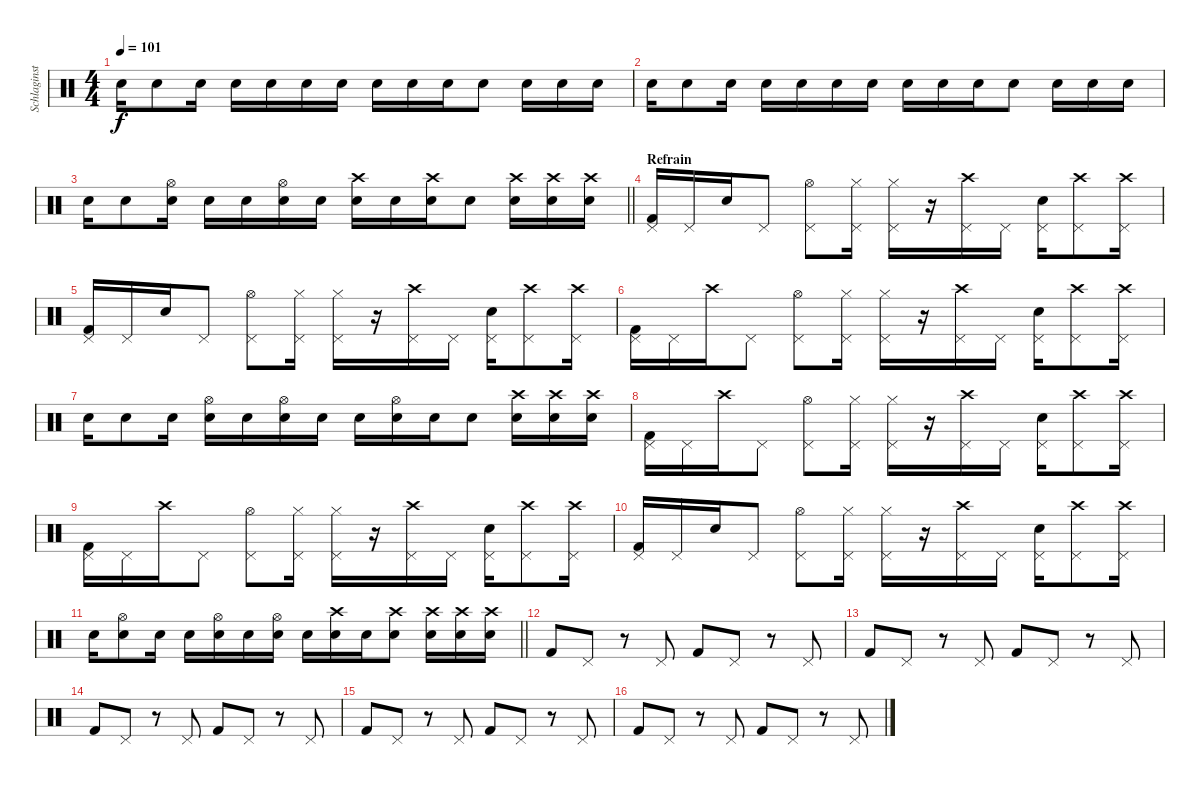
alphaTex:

\track ("Schlaginstrumente - Auswahl" "Schlaginst") {instrument percussion}
\staff {score}
\articulation defaults
\ts (4 4)
\tempo 101
\clef neutral
\ks c "Electric Snare (hit)".16{dy f} "Electric Snare (hit)".8 "Electric Snare (hit)".16 "Electric Snare (hit)".16 "Electric Snare (hit)".16 "Electric Snare (hit)".16 "Electric Snare (hit)".16 "Electric Snare (hit)".16 "Electric Snare (hit)".16 "Electric Snare (hit)".16 "Electric Snare (hit)".8 "Electric Snare (hit)".16 "Electric Snare (hit)".16 "Electric Snare (hit)".16
|
"Electric Snare (hit)".16 "Electric Snare (hit)".8 "Electric Snare (hit)".16 "Electric Snare (hit)".16 "Electric Snare (hit)".16 "Electric Snare (hit)".16 "Electric Snare (hit)".16 "Electric Snare (hit)".16 "Electric Snare (hit)".16 "Electric Snare (hit)".16 "Electric Snare (hit)".8 "Electric Snare (hit)".16 "Electric Snare (hit)".16 "Electric Snare (hit)".16 |
\barLineRight lightlight "Electric Snare (hit)".16 "Electric Snare (hit)".8
("Electric Snare (hit)" "Hi-Hat (open)").16 "Electric Snare (hit)".16 "Electric Snare (hit)".16 ("Electric Snare (hit)" "Hi-Hat (open)").16 "Electric Snare (hit)".16 ("Electric Snare (hit)" "Crash high (hit)").16 "Electric Snare (hit)".16 ("Electric Snare (hit)" "Crash high (hit)").16 "Electric Snare (hit)".8 ("Electric Snare (hit)" "Crash high (hit)").16 ("Electric Snare (hit)" "Crash high (hit)").16 ("Electric Snare (hit)" "Crash high (hit)").16 |
\section ("" "Refrain")
("Kick (hit) 2" "Pedal Hi-Hat (hit)").16 "Pedal Hi-Hat (hit)".16 "Electric Snare (hit)".16 "Pedal Hi-Hat (hit)".8 ("Hi-Hat (open)" "Pedal Hi-Hat (hit)").8 ("Hi-Hat (closed)" "Pedal Hi-Hat (hit)").16 ("Hi-Hat (closed)" "Pedal Hi-Hat (hit)").16 r.16 ("Crash high (hit)" "Pedal Hi-Hat (hit)").16 "Pedal Hi-Hat (hit)".16 ("Snare (hit) 2" "Pedal Hi-Hat (hit)").16 ("Crash high (hit)" "Pedal Hi-Hat (hit)").8 ("Crash high (hit)" "Pedal Hi-Hat (hit)").16 |
("Kick (hit) 2" "Pedal Hi-Hat (hit)").16 "Pedal Hi-Hat (hit)".16 "Electric Snare (hit)".16 "Pedal Hi-Hat (hit)".8 ("Hi-Hat (open)" "Pedal Hi-Hat (hit)").8 ("Hi-Hat (closed)" "Pedal Hi-Hat (hit)").16 ("Hi-Hat (closed)" "Pedal Hi-Hat (hit)").16 r.16 ("Crash high (hit)" "Pedal Hi-Hat (hit)").16 "Pedal Hi-Hat (hit)".16 ("Snare (hit) 2" "Pedal Hi-Hat (hit)").16 ("Crash high (hit)" "Pedal Hi-Hat (hit)").8 ("Crash high (hit)" "Pedal Hi-Hat (hit)").16 |
("Kick (hit) 2" "Pedal Hi-Hat (hit)").16 "Pedal Hi-Hat (hit)".16 "Crash high (hit)".16 "Pedal Hi-Hat (hit)".8 ("Hi-Hat (open)" "Pedal Hi-Hat (hit)").8 ("Hi-Hat (closed)" "Pedal Hi-Hat (hit)").16 ("Hi-Hat (closed)" "Pedal Hi-Hat (hit)").16 r.16 ("Crash high (hit)" "Pedal Hi-Hat (hit)").16 "Pedal Hi-Hat (hit)".16 ("Snare (hit) 2" "Pedal Hi-Hat (hit)").16 ("Crash high (hit)" "Pedal Hi-Hat (hit)").8 ("Crash high (hit)" "Pedal Hi-Hat (hit)").16 |
"Electric Snare (hit)".16 "Electric Snare (hit)".8 "Electric Snare (hit)".16 ("Electric Snare (hit)" "Hi-Hat (open)").16 "Electric Snare (hit)".16 ("Electric Snare (hit)" "Hi-Hat (open)").16 "Electric Snare (hit)".16 "Electric Snare (hit)".16 ("Electric Snare (hit)" "Hi-Hat (open)").16 "Electric Snare (hit)".16 "Electric Snare (hit)".8 ("Electric Snare (hit)" "Crash high (hit)").16 ("Electric Snare (hit)" "Crash high (hit)").16 ("Electric Snare (hit)" "Crash high (hit)").16 |
("Kick (hit) 2" "Pedal Hi-Hat (hit)").16 "Pedal Hi-Hat (hit)".16 "Crash high (hit)".16 "Pedal Hi-Hat (hit)".8 ("Hi-Hat (open)" "Pedal Hi-Hat (hit)").8 ("Hi-Hat (closed)" "Pedal Hi-Hat (hit)").16 ("Hi-Hat (closed)" "Pedal Hi-Hat (hit)").16 r.16 ("Crash high (hit)" "Pedal Hi-Hat (hit)").16 "Pedal Hi-Hat (hit)".16 ("Snare (hit) 2" "Pedal Hi-Hat (hit)").16 ("Crash high (hit)" "Pedal Hi-Hat (hit)").8 ("Crash high (hit)" "Pedal Hi-Hat (hit)").16 |
("Kick (hit) 2" "Pedal Hi-Hat (hit)").16 "Pedal Hi-Hat (hit)".16 "Crash high (hit)".16 "Pedal Hi-Hat (hit)".8 ("Hi-Hat (open)" "Pedal Hi-Hat (hit)").8 ("Hi-Hat (closed)" "Pedal Hi-Hat (hit)").16 ("Hi-Hat (closed)" "Pedal Hi-Hat (hit)").16 r.16 ("Crash high (hit)" "Pedal Hi-Hat (hit)").16 "Pedal Hi-Hat (hit)".16 ("Snare (hit) 2" "Pedal Hi-Hat (hit)").16 ("Crash high (hit)" "Pedal Hi-Hat (hit)").8 ("Crash high (hit)" "Pedal Hi-Hat (hit)").16 |
("Kick (hit) 2" "Pedal Hi-Hat (hit)").16 "Pedal Hi-Hat (hit)".16 "Electric Snare (hit)".16 "Pedal Hi-Hat (hit)".8 ("Hi-Hat (open)" "Pedal Hi-Hat (hit)").8 ("Hi-Hat (closed)" "Pedal Hi-Hat (hit)").16 ("Hi-Hat (closed)" "Pedal Hi-Hat (hit)").16 r.16 ("Crash high (hit)" "Pedal Hi-Hat (hit)").16 "Pedal Hi-Hat (hit)".16 ("Snare (hit) 2" "Pedal Hi-Hat (hit)").16 ("Crash high (hit)" "Pedal Hi-Hat (hit)").8 ("Crash high (hit)" "Pedal Hi-Hat (hit)").16 |
\barLineRight lightlight "Electric Snare (hit)".16
("Electric Snare (hit)" "Hi-Hat (open)").8 "Electric Snare (hit)".16 "Electric Snare (hit)".16 ("Electric Snare (hit)" "Hi-Hat (open)").16 "Electric Snare (hit)".16 ("Electric Snare (hit)" "Hi-Hat (open)").16 "Electric Snare (hit)".16 ("Electric Snare (hit)" "Crash high (hit)").16 "Electric Snare (hit)".16 ("Electric Snare (hit)" "Crash high (hit)").8 ("Electric Snare (hit)" "Crash high (hit)").16 ("Electric Snare (hit)" "Crash high (hit)").16 ("Electric Snare (hit)" "Crash high (hit)").16 |
"Kick (hit) 2".8 "Pedal Hi-Hat (hit)".8 r.8 "Pedal Hi-Hat (hit)".8 "Kick (hit) 2".8 "Pedal Hi-Hat (hit)".8 r.8 "Pedal Hi-Hat (hit)".8 |
"Kick (hit) 2".8 "Pedal Hi-Hat (hit)".8 r.8 "Pedal Hi-Hat (hit)".8 "Kick (hit) 2".8 "Pedal Hi-Hat (hit)".8 r.8 "Pedal Hi-Hat (hit)".8 |
"Kick (hit) 2".8 "Pedal Hi-Hat (hit)".8 r.8 "Pedal Hi-Hat (hit)".8 "Kick (hit) 2".8 "Pedal Hi-Hat (hit)".8 r.8 "Pedal Hi-Hat (hit)".8 |
"Kick (hit) 2".8 "Pedal Hi-Hat (hit)".8 r.8 "Pedal Hi-Hat (hit)".8 "Kick (hit) 2".8 "Pedal Hi-Hat (hit)".8 r.8 "Pedal Hi-Hat (hit)".8 |
"Kick (hit) 2".8 "Pedal Hi-Hat (hit)".8 r.8 "Pedal Hi-Hat (hit)".8 "Kick (hit) 2".8 "Pedal Hi-Hat (hit)".8 r.8 "Pedal Hi-Hat (hit)".8
